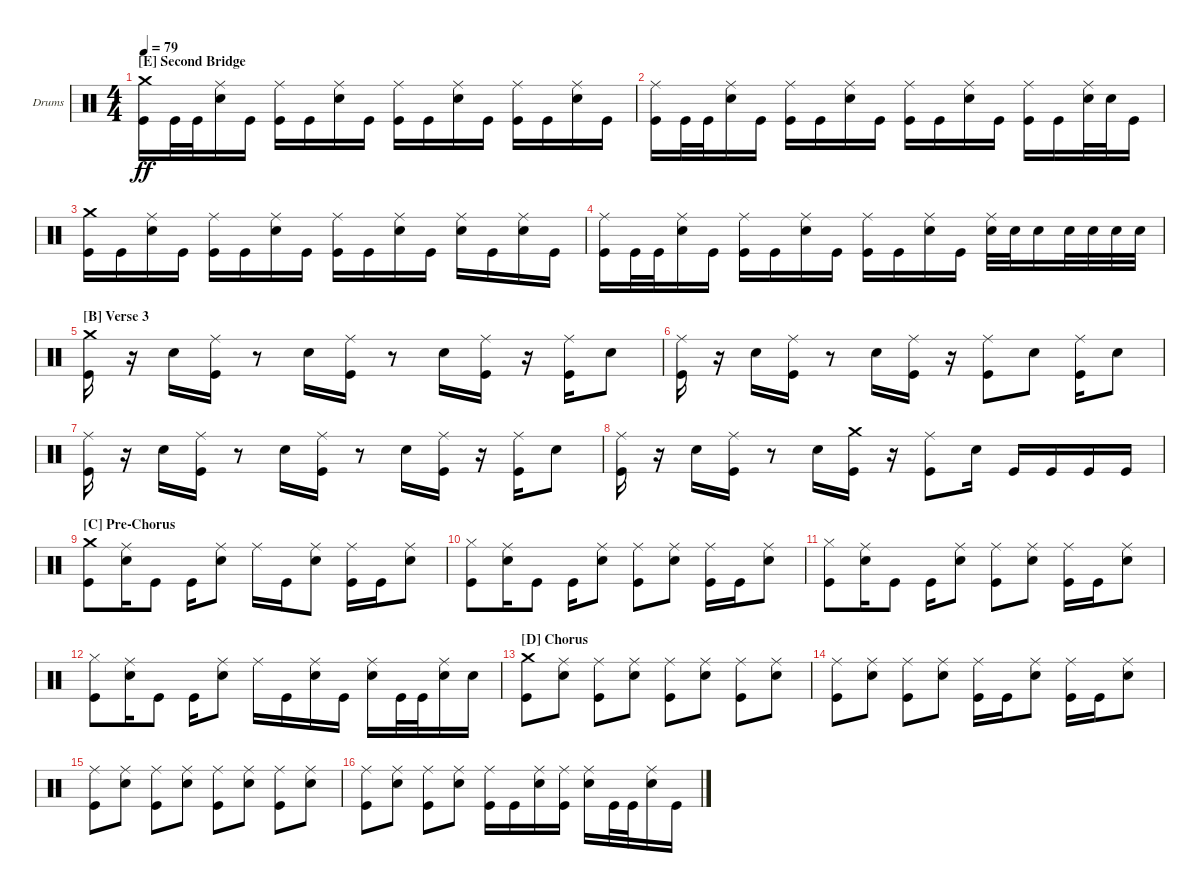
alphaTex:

\bracketExtendMode groupsimilarinstruments
\firstSystemTrackNameOrientation horizontal
\otherSystemsTrackNameOrientation horizontal
\track ("Drums" "Drums") {instrument percussion}
\staff {score}
\articulation defaults
\ts (4 4)
\section ("E" "Second Bridge")
\tempo 79
\clef neutral
\ks c
("Kick (hit)" "Crash medium (hit)").16{dy ff} "Kick (hit)".32 "Kick (hit)".32 ("Snare (hit) 2" "Ride (middle)").16 "Kick (hit)".16 ("Kick (hit)" "Ride (middle)").16 "Kick (hit)".16 ("Snare (hit) 2" "Ride (middle)").16 "Kick (hit)".16 ("Kick (hit)" "Ride (middle)").16 "Kick (hit)".16 ("Snare (hit) 2" "Ride (middle)").16 "Kick (hit)".16 ("Kick (hit)" "Ride (middle)").16 "Kick (hit)".16 ("Snare (hit) 2" "Ride (middle)").16 "Kick (hit)".16 |
("Kick (hit)" "Ride (middle)").16 "Kick (hit)".32 "Kick (hit)".32 ("Snare (hit) 2" "Ride (middle)").16 "Kick (hit)".16 ("Kick (hit)" "Ride (middle)").16 "Kick (hit)".16 ("Snare (hit) 2" "Ride (middle)").16 "Kick (hit)".16 ("Kick (hit)" "Ride (middle)").16 "Kick (hit)".16 ("Snare (hit) 2" "Ride (middle)").16 "Kick (hit)".16 ("Kick (hit)" "Ride (middle)").16 "Kick (hit)".16 ("Snare (hit) 2" "Ride (middle)").32 "Snare (hit) 2".32 "Kick (hit)".16 |
("Kick (hit)" "Crash medium (hit)").16 "Kick (hit)".16 ("Snare (hit) 2" "Ride (middle)").16 "Kick (hit)".16 ("Kick (hit)" "Ride (middle)").16 "Kick (hit)".16 ("Snare (hit) 2" "Ride (middle)").16 "Kick (hit)".16 ("Kick (hit)" "Ride (middle)").16 "Kick (hit)".16 ("Snare (hit) 2" "Ride (middle)").16 "Kick (hit)".16 ("Ride (middle)" "Snare (hit) 2").16 "Kick (hit)".16 ("Snare (hit) 2" "Ride (middle)").16 "Kick (hit)".16 |
("Kick (hit)" "Ride (middle)").16 "Kick (hit)".32 "Kick (hit)".32 ("Snare (hit) 2" "Ride (middle)").16 "Kick (hit)".16 ("Kick (hit)" "Ride (middle)").16 "Kick (hit)".16 ("Snare (hit) 2" "Ride (middle)").16 "Kick (hit)".16 ("Kick (hit)" "Ride (middle)").16 "Kick (hit)".16 ("Snare (hit) 2" "Ride (middle)").16 "Kick (hit)".16 ("Ride (middle)" "Snare (hit) 2").32 "Snare (hit) 2".32 "Snare (hit) 2".16 "Snare (hit) 2".32 "Snare (hit) 2".32 "Snare (hit) 2".32 "Snare (hit) 2".32 |
\section ("B" "Verse 3")
("Kick (hit)" "Crash medium (hit)").16{beam split} r.16{beam split} "Snare (hit) 2".16 ("Kick (hit)" "Ride (middle)").16 r.8 "Snare (hit) 2".16 ("Kick (hit)" "Ride (middle)").16 r.8 "Snare (hit) 2".16 ("Kick (hit)" "Ride (middle)").16 r.16 ("Kick (hit)" "Ride (middle)").16 "Snare (hit) 2".8 |
("Kick (hit)" "Ride (middle)").16{beam split} r.16{beam split} "Snare (hit) 2".16 ("Kick (hit)" "Ride (middle)").16 r.8 "Snare (hit) 2".16 ("Kick (hit)" "Ride (middle)").16 r.16 ("Kick (hit)" "Ride (middle)").8 "Snare (hit) 2".8 ("Kick (hit)" "Ride (middle)").16 "Snare (hit) 2".8 |
("Kick (hit)" "Ride (middle)").16{beam split} r.16{beam split} "Snare (hit) 2".16 ("Kick (hit)" "Ride (middle)").16 r.8 "Snare (hit) 2".16 ("Kick (hit)" "Ride (middle)").16 r.8 "Snare (hit) 2".16 ("Kick (hit)" "Ride (middle)").16 r.16 ("Kick (hit)" "Ride (middle)").16 "Snare (hit) 2".8 |
("Kick (hit)" "Ride (middle)").16{beam split} r.16{beam split} "Snare (hit) 2".16 ("Kick (hit)" "Ride (middle)").16 r.8 "Snare (hit) 2".16 ("Kick (hit)" "Crash medium (hit)").16 r.16 ("Kick (hit)" "Ride (middle)").8 "Snare (hit) 2".16 "Kick (hit)".16 "Kick (hit)".16 "Kick (hit)".16 "Kick (hit)".16 |
\section ("C" "Pre-Chorus")
("Kick (hit)" "Crash medium (hit)").8 ("Snare (hit) 2" "Ride (middle)").16 "Kick (hit)".8 "Kick (hit)".16 ("Snare (hit) 2" "Ride (middle)").8 "Ride (middle)".16 "Kick (hit)".16 ("Snare (hit) 2" "Ride (middle)").8 ("Kick (hit)" "Ride (middle)").16 "Kick (hit)".16 ("Snare (hit) 2" "Ride (middle)").8 |
("Kick (hit)" "Hi-Hat (closed)").8 ("Snare (hit) 2" "Ride (middle)").16 "Kick (hit)".8 "Kick (hit)".16 ("Snare (hit) 2" "Ride (middle)").8 ("Ride (middle)" "Kick (hit)").8 ("Snare (hit) 2" "Ride (middle)").8 ("Kick (hit)" "Ride (middle)").16 "Kick (hit)".16 ("Snare (hit) 2" "Ride (middle)").8 |
("Kick (hit)" "Hi-Hat (closed)").8 ("Snare (hit) 2" "Ride (middle)").16 "Kick (hit)".8 "Kick (hit)".16 ("Snare (hit) 2" "Ride (middle)").8 ("Ride (middle)" "Kick (hit)").8 ("Snare (hit) 2" "Ride (middle)").8 ("Kick (hit)" "Ride (middle)").16 "Kick (hit)".16 ("Snare (hit) 2" "Ride (middle)").8 |
("Kick (hit)" "Hi-Hat (closed)").8 ("Snare (hit) 2" "Ride (middle)").16 "Kick (hit)".8 "Kick (hit)".16 ("Snare (hit) 2" "Ride (middle)").8 "Ride (middle)".16 "Kick (hit)".16 ("Snare (hit) 2" "Ride (middle)").16 "Kick (hit)".16 ("Ride (middle)" "Snare (hit) 2").16 "Kick (hit)".32 "Kick (hit)".32 ("Snare (hit) 2" "Ride (middle)").16 "Snare (hit) 2".16 |
\section ("D" "Chorus")
("Kick (hit)" "Crash medium (hit)").8 ("Snare (hit) 2" "Ride (middle)").8 ("Kick (hit)" "Ride (middle)").8 ("Snare (hit) 2" "Ride (middle)").8 ("Kick (hit)" "Ride (middle)").8 ("Snare (hit) 2" "Ride (middle)").8 ("Kick (hit)" "Ride (middle)").8 ("Snare (hit) 2" "Ride (middle)").8 |
("Kick (hit)" "Ride (middle)").8 ("Snare (hit) 2" "Ride (middle)").8 ("Kick (hit)" "Ride (middle)").8 ("Snare (hit) 2" "Ride (middle)").8 ("Kick (hit)" "Ride (middle)").16 "Kick (hit)".16 ("Snare (hit) 2" "Ride (middle)").8 ("Kick (hit)" "Ride (middle)").16 "Kick (hit)".16 ("Snare (hit) 2" "Ride (middle)").8 |
("Kick (hit)" "Ride (middle)").8 ("Snare (hit) 2" "Ride (middle)").8 ("Kick (hit)" "Ride (middle)").8 ("Snare (hit) 2" "Ride (middle)").8 ("Kick (hit)" "Ride (middle)").8 ("Snare (hit) 2" "Ride (middle)").8 ("Kick (hit)" "Ride (middle)").8 ("Snare (hit) 2" "Ride (middle)").8 |
("Kick (hit)" "Ride (middle)").8 ("Snare (hit) 2" "Ride (middle)").8 ("Kick (hit)" "Ride (middle)").8 ("Snare (hit) 2" "Ride (middle)").8 ("Kick (hit)" "Ride (middle)").16 "Kick (hit)".16 ("Snare (hit) 2" "Ride (middle)").16 ("Kick (hit)" "Ride (middle)").16 ("Ride (middle)" "Snare (hit) 2").16 "Kick (hit)".32 "Kick (hit)".32 ("Snare (hit) 2" "Ride (middle)").16 "Kick (hit)".16
